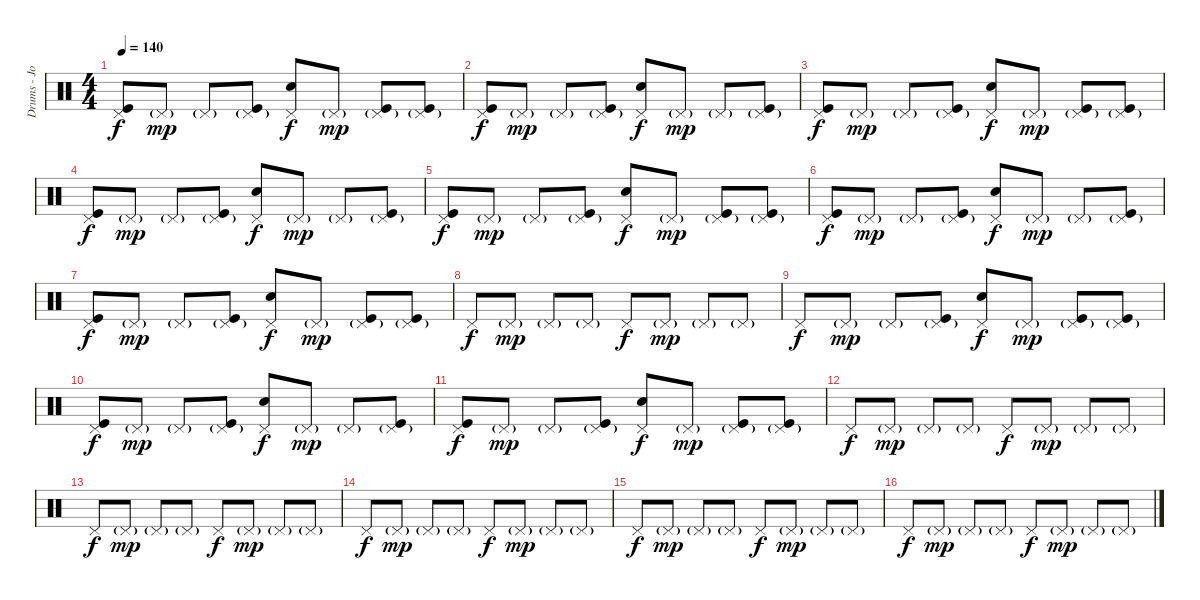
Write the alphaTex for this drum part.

\track ("Drums - Josh Klinghoffer" "Drums - Jo") {instrument percussion}
\staff {score}
\articulation defaults
\ts (4 4)
\tempo 140
\clef neutral
\ks c
("Pedal Hi-Hat (hit)" "Kick (hit)").8{dy f} "Pedal Hi-Hat (hit)"{g}.8{dy mp} "Pedal Hi-Hat (hit)"{g}.8 ("Pedal Hi-Hat (hit)"{g} "Kick (hit)").8 ("Pedal Hi-Hat (hit)" "Electric Snare (hit)").8{dy f} "Pedal Hi-Hat (hit)"{g}.8{dy mp} ("Pedal Hi-Hat (hit)"{g} "Kick (hit)").8 ("Pedal Hi-Hat (hit)"{g} "Kick (hit)").8 |
("Pedal Hi-Hat (hit)" "Kick (hit)").8{dy f} "Pedal Hi-Hat (hit)"{g}.8{dy mp} "Pedal Hi-Hat (hit)"{g}.8 ("Pedal Hi-Hat (hit)"{g} "Kick (hit)").8 ("Pedal Hi-Hat (hit)" "Electric Snare (hit)").8{dy f} "Pedal Hi-Hat (hit)"{g}.8{dy mp} "Pedal Hi-Hat (hit)"{g}.8 ("Pedal Hi-Hat (hit)"{g} "Kick (hit)").8 |
("Pedal Hi-Hat (hit)" "Kick (hit)").8{dy f} "Pedal Hi-Hat (hit)"{g}.8{dy mp} "Pedal Hi-Hat (hit)"{g}.8 ("Pedal Hi-Hat (hit)"{g} "Kick (hit)").8 ("Pedal Hi-Hat (hit)" "Electric Snare (hit)").8{dy f} "Pedal Hi-Hat (hit)"{g}.8{dy mp} ("Pedal Hi-Hat (hit)"{g} "Kick (hit)").8 ("Pedal Hi-Hat (hit)"{g} "Kick (hit)").8 |
("Pedal Hi-Hat (hit)" "Kick (hit)").8{dy f} "Pedal Hi-Hat (hit)"{g}.8{dy mp} "Pedal Hi-Hat (hit)"{g}.8 ("Pedal Hi-Hat (hit)"{g} "Kick (hit)").8 ("Pedal Hi-Hat (hit)" "Electric Snare (hit)").8{dy f} "Pedal Hi-Hat (hit)"{g}.8{dy mp} "Pedal Hi-Hat (hit)"{g}.8 ("Pedal Hi-Hat (hit)"{g} "Kick (hit)").8 |
("Pedal Hi-Hat (hit)" "Kick (hit)").8{dy f} "Pedal Hi-Hat (hit)"{g}.8{dy mp} "Pedal Hi-Hat (hit)"{g}.8 ("Pedal Hi-Hat (hit)"{g} "Kick (hit)").8 ("Pedal Hi-Hat (hit)" "Electric Snare (hit)").8{dy f} "Pedal Hi-Hat (hit)"{g}.8{dy mp} ("Pedal Hi-Hat (hit)"{g} "Kick (hit)").8 ("Pedal Hi-Hat (hit)"{g} "Kick (hit)").8 |
("Pedal Hi-Hat (hit)" "Kick (hit)").8{dy f} "Pedal Hi-Hat (hit)"{g}.8{dy mp} "Pedal Hi-Hat (hit)"{g}.8 ("Pedal Hi-Hat (hit)"{g} "Kick (hit)").8 ("Pedal Hi-Hat (hit)" "Electric Snare (hit)").8{dy f} "Pedal Hi-Hat (hit)"{g}.8{dy mp} "Pedal Hi-Hat (hit)"{g}.8 ("Pedal Hi-Hat (hit)"{g} "Kick (hit)").8 |
("Pedal Hi-Hat (hit)" "Kick (hit)").8{dy f} "Pedal Hi-Hat (hit)"{g}.8{dy mp} "Pedal Hi-Hat (hit)"{g}.8 ("Pedal Hi-Hat (hit)"{g} "Kick (hit)").8 ("Pedal Hi-Hat (hit)" "Electric Snare (hit)").8{dy f} "Pedal Hi-Hat (hit)"{g}.8{dy mp} ("Pedal Hi-Hat (hit)"{g} "Kick (hit)").8 ("Pedal Hi-Hat (hit)"{g} "Kick (hit)").8 |
"Pedal Hi-Hat (hit)".8{dy f} "Pedal Hi-Hat (hit)"{g}.8{dy mp} "Pedal Hi-Hat (hit)"{g}.8 "Pedal Hi-Hat (hit)"{g}.8 "Pedal Hi-Hat (hit)".8{dy f} "Pedal Hi-Hat (hit)"{g}.8{dy mp} "Pedal Hi-Hat (hit)"{g}.8 "Pedal Hi-Hat (hit)"{g}.8 |
"Pedal Hi-Hat (hit)".8{dy f} "Pedal Hi-Hat (hit)"{g}.8{dy mp} "Pedal Hi-Hat (hit)"{g}.8 ("Pedal Hi-Hat (hit)"{g} "Kick (hit)").8 ("Pedal Hi-Hat (hit)" "Electric Snare (hit)").8{dy f} "Pedal Hi-Hat (hit)"{g}.8{dy mp} ("Pedal Hi-Hat (hit)"{g} "Kick (hit)").8 ("Pedal Hi-Hat (hit)"{g} "Kick (hit)").8 |
("Pedal Hi-Hat (hit)" "Kick (hit)").8{dy f} "Pedal Hi-Hat (hit)"{g}.8{dy mp} "Pedal Hi-Hat (hit)"{g}.8 ("Pedal Hi-Hat (hit)"{g} "Kick (hit)").8 ("Pedal Hi-Hat (hit)" "Electric Snare (hit)").8{dy f} "Pedal Hi-Hat (hit)"{g}.8{dy mp} "Pedal Hi-Hat (hit)"{g}.8 ("Pedal Hi-Hat (hit)"{g} "Kick (hit)").8 |
("Pedal Hi-Hat (hit)" "Kick (hit)").8{dy f} "Pedal Hi-Hat (hit)"{g}.8{dy mp} "Pedal Hi-Hat (hit)"{g}.8 ("Pedal Hi-Hat (hit)"{g} "Kick (hit)").8 ("Pedal Hi-Hat (hit)" "Electric Snare (hit)").8{dy f} "Pedal Hi-Hat (hit)"{g}.8{dy mp} ("Pedal Hi-Hat (hit)"{g} "Kick (hit)").8 ("Pedal Hi-Hat (hit)"{g} "Kick (hit)").8 |
"Pedal Hi-Hat (hit)".8{dy f} "Pedal Hi-Hat (hit)"{g}.8{dy mp} "Pedal Hi-Hat (hit)"{g}.8 "Pedal Hi-Hat (hit)"{g}.8 "Pedal Hi-Hat (hit)".8{dy f} "Pedal Hi-Hat (hit)"{g}.8{dy mp} "Pedal Hi-Hat (hit)"{g}.8 "Pedal Hi-Hat (hit)"{g}.8 |
"Pedal Hi-Hat (hit)".8{dy f} "Pedal Hi-Hat (hit)"{g}.8{dy mp} "Pedal Hi-Hat (hit)"{g}.8 "Pedal Hi-Hat (hit)"{g}.8 "Pedal Hi-Hat (hit)".8{dy f} "Pedal Hi-Hat (hit)"{g}.8{dy mp} "Pedal Hi-Hat (hit)"{g}.8 "Pedal Hi-Hat (hit)"{g}.8 |
"Pedal Hi-Hat (hit)".8{dy f} "Pedal Hi-Hat (hit)"{g}.8{dy mp} "Pedal Hi-Hat (hit)"{g}.8 "Pedal Hi-Hat (hit)"{g}.8 "Pedal Hi-Hat (hit)".8{dy f} "Pedal Hi-Hat (hit)"{g}.8{dy mp} "Pedal Hi-Hat (hit)"{g}.8 "Pedal Hi-Hat (hit)"{g}.8 |
"Pedal Hi-Hat (hit)".8{dy f} "Pedal Hi-Hat (hit)"{g}.8{dy mp} "Pedal Hi-Hat (hit)"{g}.8 "Pedal Hi-Hat (hit)"{g}.8 "Pedal Hi-Hat (hit)".8{dy f} "Pedal Hi-Hat (hit)"{g}.8{dy mp} "Pedal Hi-Hat (hit)"{g}.8 "Pedal Hi-Hat (hit)"{g}.8 |
"Pedal Hi-Hat (hit)".8{dy f volume 0} "Pedal Hi-Hat (hit)"{g}.8{dy mp} "Pedal Hi-Hat (hit)"{g}.8 "Pedal Hi-Hat (hit)"{g}.8 "Pedal Hi-Hat (hit)".8{dy f} "Pedal Hi-Hat (hit)"{g}.8{dy mp} "Pedal Hi-Hat (hit)"{g}.8 "Pedal Hi-Hat (hit)"{g}.8
